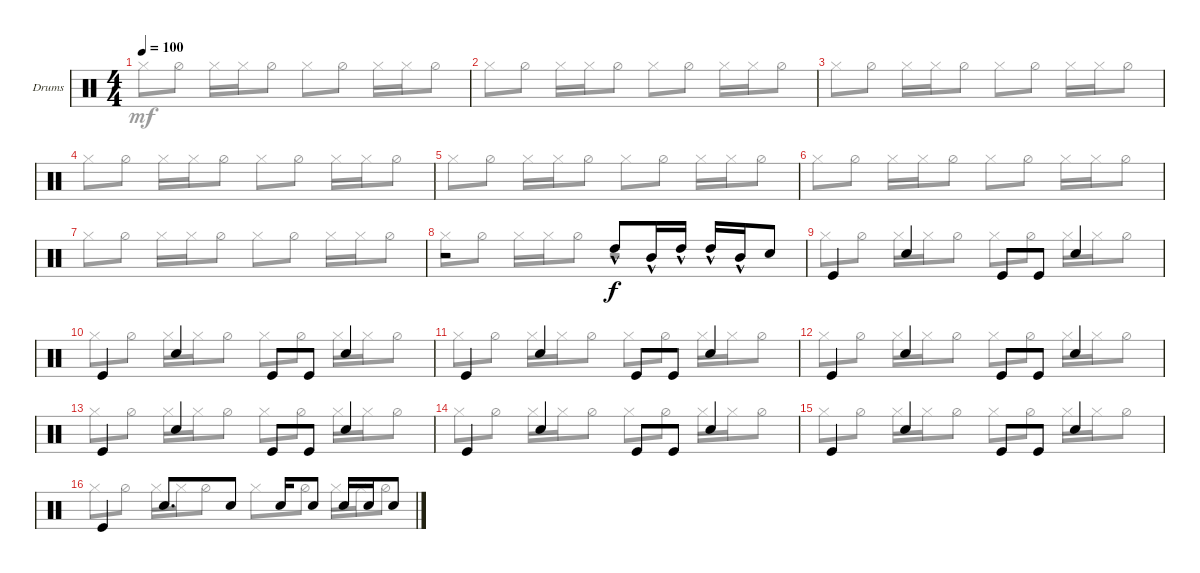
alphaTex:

\bracketExtendMode groupsimilarinstruments
\firstSystemTrackNameOrientation horizontal
\otherSystemsTrackNameOrientation horizontal
\track ("Drumkit" "Drums") {multiBarRest instrument percussion}
\staff {score}
\articulation defaults
\voice
\ts (4 4)
\tempo 100
\clef neutral
\scale
0.291108
\ks c
|
\scale
0.236297 |
\scale
0.236297 |
\scale
0.236297 |
\scale
0.229314 |
\scale
0.229314 |
\scale
0.229314 |
\scale
0.312057 r.2 "High Tom (hit)"{hac}.8 "Mid Tom (hit)"{hac}.16 "High Tom (hit)"{hac}.16 "High Tom (hit)"{hac}.16 "Mid Tom (hit)"{hac}.16 "Snare (hit) 2".8 |
\scale
0.25 "Kick (hit)".4 "Snare (hit) 2".4 "Kick (hit)".8 "Kick (hit)".8 "Snare (hit) 2".4 |
\scale
0.25 "Kick (hit)".4 "Snare (hit) 2".4 "Kick (hit)".8 "Kick (hit)".8 "Snare (hit) 2".4 |
\scale
0.25 "Kick (hit)".4 "Snare (hit) 2".4 "Kick (hit)".8 "Kick (hit)".8 "Snare (hit) 2".4 |
\scale
0.25 "Kick (hit)".4 "Snare (hit) 2".4 "Kick (hit)".8 "Kick (hit)".8 "Snare (hit) 2".4 |
\scale
0.25 "Kick (hit)".4 "Snare (hit) 2".4 "Kick (hit)".8 "Kick (hit)".8 "Snare (hit) 2".4 |
\scale
0.25 "Kick (hit)".4 "Snare (hit) 2".4 "Kick (hit)".8 "Kick (hit)".8 "Snare (hit) 2".4 |
\scale
0.25 "Kick (hit)".4 "Snare (hit) 2".4 "Kick (hit)".8 "Kick (hit)".8 "Snare (hit) 2".4 |
\scale
0.25 "Kick (hit)".4 "Snare (hit) 2".8{d} "Snare (hit) 2".8 "Snare (hit) 2".16 "Snare (hit) 2".8 "Snare (hit) 2".16 "Snare (hit) 2".16 "Snare (hit) 2".8
\voice
\clef neutral
\ottava regular
\simile none
\scale
0.291108
\ks c "Hi-Hat (closed)".8{dy mf} "Hi-Hat (half)".8 "Hi-Hat (closed)".16 "Hi-Hat (closed)".16 "Hi-Hat (half)".8 "Hi-Hat (closed)".8 "Hi-Hat (half)".8 "Hi-Hat (closed)".16 "Hi-Hat (closed)".16 "Hi-Hat (half)".8
|
\scale
0.236297 "Hi-Hat (closed)".8 "Hi-Hat (half)".8 "Hi-Hat (closed)".16 "Hi-Hat (closed)".16 "Hi-Hat (half)".8 "Hi-Hat (closed)".8 "Hi-Hat (half)".8 "Hi-Hat (closed)".16 "Hi-Hat (closed)".16 "Hi-Hat (half)".8 |
\scale
0.236297 "Hi-Hat (closed)".8 "Hi-Hat (half)".8 "Hi-Hat (closed)".16 "Hi-Hat (closed)".16 "Hi-Hat (half)".8 "Hi-Hat (closed)".8 "Hi-Hat (half)".8 "Hi-Hat (closed)".16 "Hi-Hat (closed)".16 "Hi-Hat (half)".8 |
\scale
0.236297 "Hi-Hat (closed)".8 "Hi-Hat (half)".8 "Hi-Hat (closed)".16 "Hi-Hat (closed)".16 "Hi-Hat (half)".8 "Hi-Hat (closed)".8 "Hi-Hat (half)".8 "Hi-Hat (closed)".16 "Hi-Hat (closed)".16 "Hi-Hat (half)".8 |
\scale
0.229314 "Hi-Hat (closed)".8 "Hi-Hat (half)".8 "Hi-Hat (closed)".16 "Hi-Hat (closed)".16 "Hi-Hat (half)".8 "Hi-Hat (closed)".8 "Hi-Hat (half)".8 "Hi-Hat (closed)".16 "Hi-Hat (closed)".16 "Hi-Hat (half)".8 |
\scale
0.229314 "Hi-Hat (closed)".8 "Hi-Hat (half)".8 "Hi-Hat (closed)".16 "Hi-Hat (closed)".16 "Hi-Hat (half)".8 "Hi-Hat (closed)".8 "Hi-Hat (half)".8 "Hi-Hat (closed)".16 "Hi-Hat (closed)".16 "Hi-Hat (half)".8 |
\scale
0.229314 "Hi-Hat (closed)".8 "Hi-Hat (half)".8 "Hi-Hat (closed)".16 "Hi-Hat (closed)".16 "Hi-Hat (half)".8 "Hi-Hat (closed)".8 "Hi-Hat (half)".8 "Hi-Hat (closed)".16 "Hi-Hat (closed)".16 "Hi-Hat (half)".8 |
\scale
0.312057 "Hi-Hat (closed)".8 "Hi-Hat (half)".8 "Hi-Hat (closed)".16 "Hi-Hat (closed)".16 "Hi-Hat (half)".8 r.2 |
\scale
0.25 "Hi-Hat (closed)".8 "Hi-Hat (half)".8 "Hi-Hat (closed)".16 "Hi-Hat (closed)".16 "Hi-Hat (half)".8 "Hi-Hat (closed)".8 "Hi-Hat (half)".8 "Hi-Hat (closed)".16 "Hi-Hat (closed)".16 "Hi-Hat (half)".8 |
\scale
0.25 "Hi-Hat (closed)".8 "Hi-Hat (half)".8 "Hi-Hat (closed)".16 "Hi-Hat (closed)".16 "Hi-Hat (half)".8 "Hi-Hat (closed)".8 "Hi-Hat (half)".8 "Hi-Hat (closed)".16 "Hi-Hat (closed)".16 "Hi-Hat (half)".8 |
\scale
0.25 "Hi-Hat (closed)".8 "Hi-Hat (half)".8 "Hi-Hat (closed)".16 "Hi-Hat (closed)".16 "Hi-Hat (half)".8 "Hi-Hat (closed)".8 "Hi-Hat (half)".8 "Hi-Hat (closed)".16 "Hi-Hat (closed)".16 "Hi-Hat (half)".8 |
\scale
0.25 "Hi-Hat (closed)".8 "Hi-Hat (half)".8 "Hi-Hat (closed)".16 "Hi-Hat (closed)".16 "Hi-Hat (half)".8 "Hi-Hat (closed)".8 "Hi-Hat (half)".8 "Hi-Hat (closed)".16 "Hi-Hat (closed)".16 "Hi-Hat (half)".8 |
\scale
0.25 "Hi-Hat (closed)".8 "Hi-Hat (half)".8 "Hi-Hat (closed)".16 "Hi-Hat (closed)".16 "Hi-Hat (half)".8 "Hi-Hat (closed)".8 "Hi-Hat (half)".8 "Hi-Hat (closed)".16 "Hi-Hat (closed)".16 "Hi-Hat (half)".8 |
\scale
0.25 "Hi-Hat (closed)".8 "Hi-Hat (half)".8 "Hi-Hat (closed)".16 "Hi-Hat (closed)".16 "Hi-Hat (half)".8 "Hi-Hat (closed)".8 "Hi-Hat (half)".8 "Hi-Hat (closed)".16 "Hi-Hat (closed)".16 "Hi-Hat (half)".8 |
\scale
0.25 "Hi-Hat (closed)".8 "Hi-Hat (half)".8 "Hi-Hat (closed)".16 "Hi-Hat (closed)".16 "Hi-Hat (half)".8 "Hi-Hat (closed)".8 "Hi-Hat (half)".8 "Hi-Hat (closed)".16 "Hi-Hat (closed)".16 "Hi-Hat (half)".8 |
\scale
0.25 "Hi-Hat (closed)".8 "Hi-Hat (half)".8 "Hi-Hat (closed)".16 "Hi-Hat (closed)".16 "Hi-Hat (half)".8 "Hi-Hat (closed)".8 "Hi-Hat (half)".8 "Hi-Hat (closed)".16 "Hi-Hat (closed)".16 "Hi-Hat (half)".8
